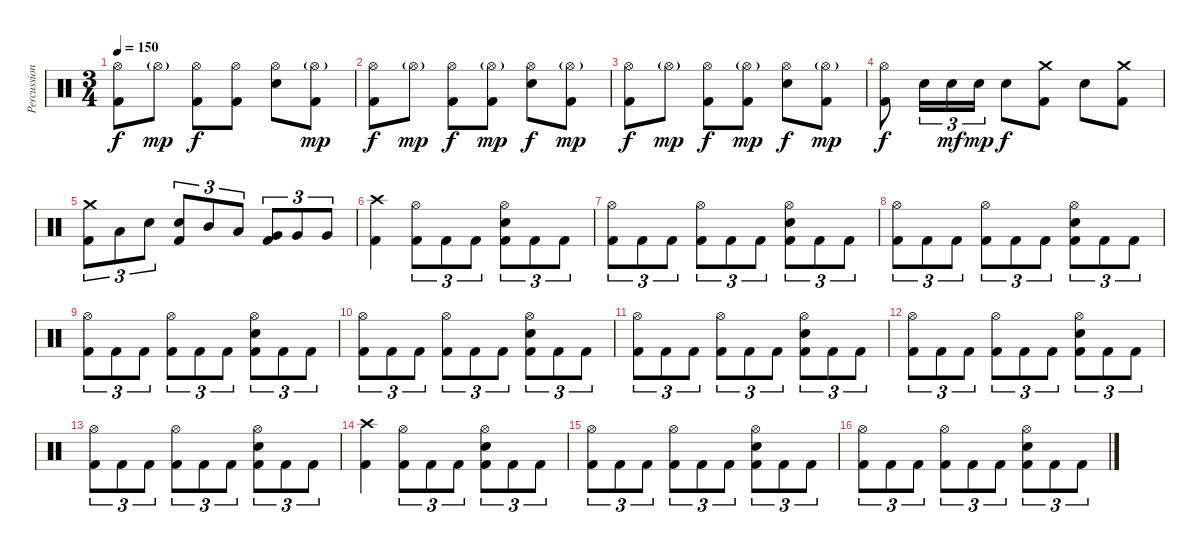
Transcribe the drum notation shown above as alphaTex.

\track ("Percussion" "Percussion") {instrument percussion}
\staff {score}
\articulation defaults
\ts (3 4)
\tempo 150
\clef neutral
\ks c
("Hi-Hat (open)" "Kick (hit) 2").8{dy f} "Hi-Hat (open)"{g}.8{dy mp} ("Hi-Hat (open)" "Kick (hit) 2").8{dy f} ("Hi-Hat (open)" "Kick (hit) 2").8 ("Hi-Hat (open)" "Electric Snare (hit)").8 ("Hi-Hat (open)"{g} "Kick (hit) 2").8{dy mp} |
("Hi-Hat (open)" "Kick (hit) 2").8{dy f} "Hi-Hat (open)"{g}.8{dy mp} ("Hi-Hat (open)" "Kick (hit) 2").8{dy f} ("Hi-Hat (open)"{g} "Kick (hit) 2").8{dy mp} ("Hi-Hat (open)" "Electric Snare (hit)").8{dy f} ("Hi-Hat (open)"{g} "Kick (hit) 2").8{dy mp} |
("Hi-Hat (open)" "Kick (hit) 2").8{dy f} "Hi-Hat (open)"{g}.8{dy mp} ("Hi-Hat (open)" "Kick (hit) 2").8{dy f} ("Hi-Hat (open)"{g} "Kick (hit) 2").8{dy mp} ("Hi-Hat (open)" "Electric Snare (hit)").8{dy f} ("Hi-Hat (open)"{g} "Kick (hit) 2").8{dy mp} |
("Hi-Hat (open)" "Kick (hit) 2").8{dy f} "Electric Snare (hit)".16{tu (3 2)} "Electric Snare (hit)".16{tu (3 2) dy mf} "Electric Snare (hit)".16{tu (3 2) dy mp} "Electric Snare (hit)".8{dy f} ("Crash medium (hit)" "Kick (hit) 2").8 "Electric Snare (hit)".8 ("Crash medium (hit)" "Kick (hit) 2").8 |
("Crash medium (hit)" "Kick (hit) 2").8{tu (3 2)} "Low Tom (hit)".8{tu (3 2)} "Electric Snare (hit)".8{tu (3 2)} ("Electric Snare (hit)" "Kick (hit) 2").8{tu (3 2)} "Mid Tom (hit)".8{tu (3 2)} "Low Tom (hit)".8{tu (3 2)} ("Very Low Tom (hit)" "Kick (hit) 2").8{tu (3 2)} "Very Low Tom (hit)".8{tu (3 2)} "Very Low Tom (hit)".8{tu (3 2)} |
("Crash high (hit)" "Kick (hit) 2").4 ("Hi-Hat (open)" "Kick (hit) 2").8{tu (3 2)} "Kick (hit) 2".8{tu (3 2)} "Kick (hit) 2".8{tu (3 2)} ("Hi-Hat (open)" "Electric Snare (hit)" "Kick (hit) 2").8{tu (3 2)} "Kick (hit) 2".8{tu (3 2)} "Kick (hit) 2".8{tu (3 2)} |
("Hi-Hat (open)" "Kick (hit) 2").8{tu (3 2)} "Kick (hit) 2".8{tu (3 2)} "Kick (hit) 2".8{tu (3 2)} ("Hi-Hat (open)" "Kick (hit) 2").8{tu (3 2)} "Kick (hit) 2".8{tu (3 2)} "Kick (hit) 2".8{tu (3 2)} ("Hi-Hat (open)" "Electric Snare (hit)" "Kick (hit) 2").8{tu (3 2)} "Kick (hit) 2".8{tu (3 2)} "Kick (hit) 2".8{tu (3 2)} |
("Hi-Hat (open)" "Kick (hit) 2").8{tu (3 2)} "Kick (hit) 2".8{tu (3 2)} "Kick (hit) 2".8{tu (3 2)} ("Hi-Hat (open)" "Kick (hit) 2").8{tu (3 2)} "Kick (hit) 2".8{tu (3 2)} "Kick (hit) 2".8{tu (3 2)} ("Hi-Hat (open)" "Electric Snare (hit)" "Kick (hit) 2").8{tu (3 2)} "Kick (hit) 2".8{tu (3 2)} "Kick (hit) 2".8{tu (3 2)} |
("Hi-Hat (open)" "Kick (hit) 2").8{tu (3 2)} "Kick (hit) 2".8{tu (3 2)} "Kick (hit) 2".8{tu (3 2)} ("Hi-Hat (open)" "Kick (hit) 2").8{tu (3 2)} "Kick (hit) 2".8{tu (3 2)} "Kick (hit) 2".8{tu (3 2)} ("Hi-Hat (open)" "Electric Snare (hit)" "Kick (hit) 2").8{tu (3 2)} "Kick (hit) 2".8{tu (3 2)} "Kick (hit) 2".8{tu (3 2)} |
("Hi-Hat (open)" "Kick (hit) 2").8{tu (3 2)} "Kick (hit) 2".8{tu (3 2)} "Kick (hit) 2".8{tu (3 2)} ("Hi-Hat (open)" "Kick (hit) 2").8{tu (3 2)} "Kick (hit) 2".8{tu (3 2)} "Kick (hit) 2".8{tu (3 2)} ("Hi-Hat (open)" "Electric Snare (hit)" "Kick (hit) 2").8{tu (3 2)} "Kick (hit) 2".8{tu (3 2)} "Kick (hit) 2".8{tu (3 2)} |
("Hi-Hat (open)" "Kick (hit) 2").8{tu (3 2)} "Kick (hit) 2".8{tu (3 2)} "Kick (hit) 2".8{tu (3 2)} ("Hi-Hat (open)" "Kick (hit) 2").8{tu (3 2)} "Kick (hit) 2".8{tu (3 2)} "Kick (hit) 2".8{tu (3 2)} ("Hi-Hat (open)" "Electric Snare (hit)" "Kick (hit) 2").8{tu (3 2)} "Kick (hit) 2".8{tu (3 2)} "Kick (hit) 2".8{tu (3 2)} |
("Hi-Hat (open)" "Kick (hit) 2").8{tu (3 2)} "Kick (hit) 2".8{tu (3 2)} "Kick (hit) 2".8{tu (3 2)} ("Hi-Hat (open)" "Kick (hit) 2").8{tu (3 2)} "Kick (hit) 2".8{tu (3 2)} "Kick (hit) 2".8{tu (3 2)} ("Hi-Hat (open)" "Electric Snare (hit)" "Kick (hit) 2").8{tu (3 2)} "Kick (hit) 2".8{tu (3 2)} "Kick (hit) 2".8{tu (3 2)} |
("Hi-Hat (open)" "Kick (hit) 2").8{tu (3 2)} "Kick (hit) 2".8{tu (3 2)} "Kick (hit) 2".8{tu (3 2)} ("Hi-Hat (open)" "Kick (hit) 2").8{tu (3 2)} "Kick (hit) 2".8{tu (3 2)} "Kick (hit) 2".8{tu (3 2)} ("Hi-Hat (open)" "Electric Snare (hit)" "Kick (hit) 2").8{tu (3 2)} "Kick (hit) 2".8{tu (3 2)} "Kick (hit) 2".8{tu (3 2)} |
("Crash high (hit)" "Kick (hit) 2").4 ("Hi-Hat (open)" "Kick (hit) 2").8{tu (3 2)} "Kick (hit) 2".8{tu (3 2)} "Kick (hit) 2".8{tu (3 2)} ("Hi-Hat (open)" "Electric Snare (hit)" "Kick (hit) 2").8{tu (3 2)} "Kick (hit) 2".8{tu (3 2)} "Kick (hit) 2".8{tu (3 2)} |
("Hi-Hat (open)" "Kick (hit) 2").8{tu (3 2)} "Kick (hit) 2".8{tu (3 2)} "Kick (hit) 2".8{tu (3 2)} ("Hi-Hat (open)" "Kick (hit) 2").8{tu (3 2)} "Kick (hit) 2".8{tu (3 2)} "Kick (hit) 2".8{tu (3 2)} ("Hi-Hat (open)" "Electric Snare (hit)" "Kick (hit) 2").8{tu (3 2)} "Kick (hit) 2".8{tu (3 2)} "Kick (hit) 2".8{tu (3 2)} |
("Hi-Hat (open)" "Kick (hit) 2").8{tu (3 2)} "Kick (hit) 2".8{tu (3 2)} "Kick (hit) 2".8{tu (3 2)} ("Hi-Hat (open)" "Kick (hit) 2").8{tu (3 2)} "Kick (hit) 2".8{tu (3 2)} "Kick (hit) 2".8{tu (3 2)} ("Hi-Hat (open)" "Electric Snare (hit)" "Kick (hit) 2").8{tu (3 2)} "Kick (hit) 2".8{tu (3 2)} "Kick (hit) 2".8{tu (3 2)}
